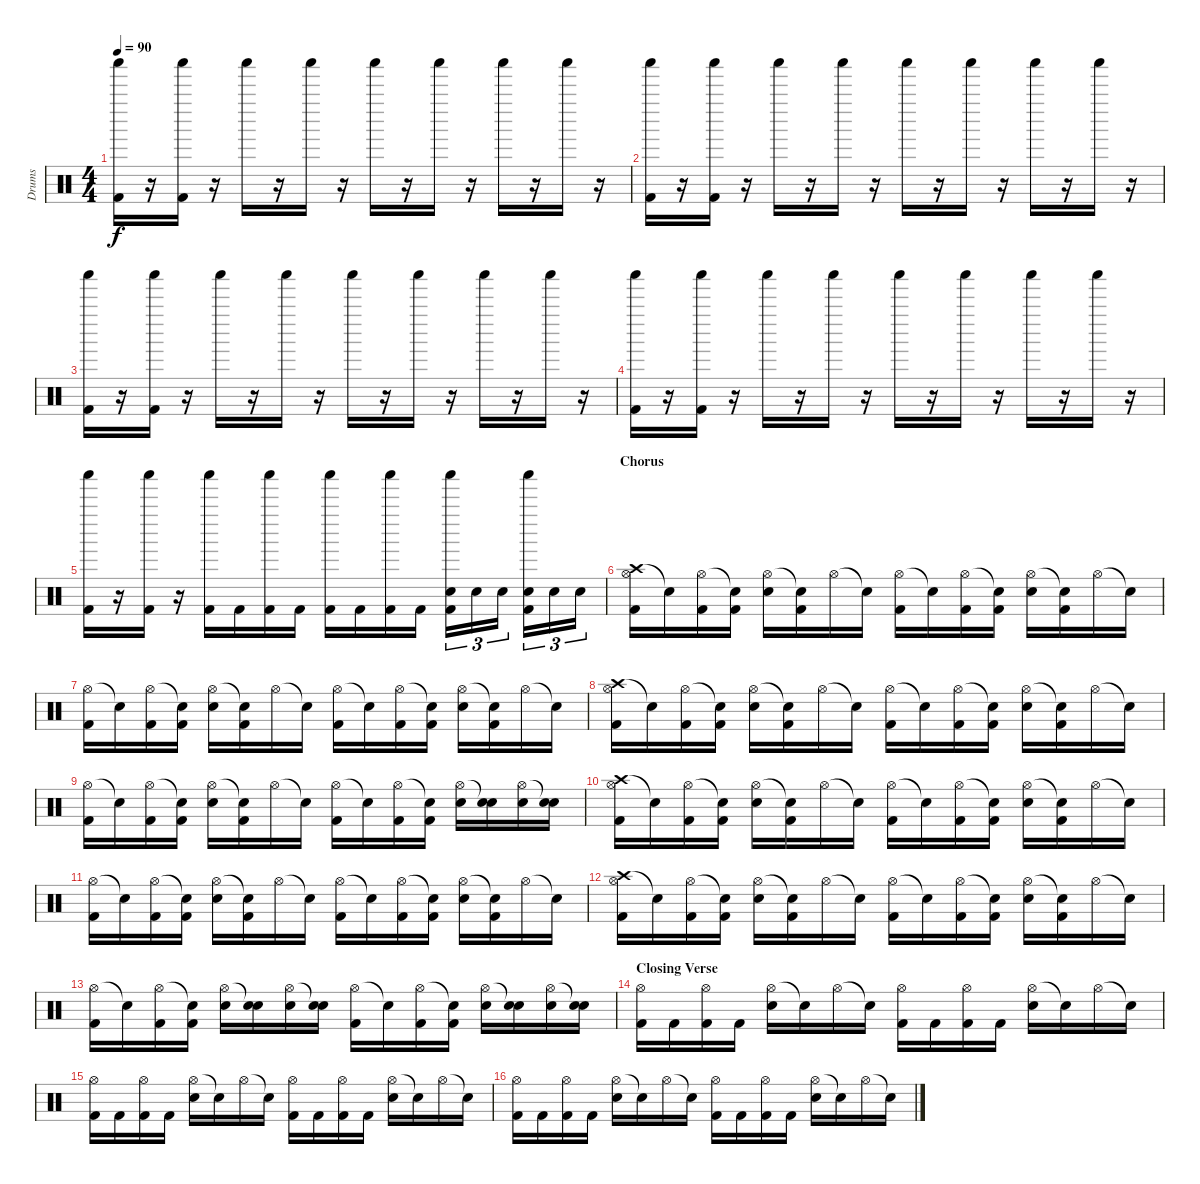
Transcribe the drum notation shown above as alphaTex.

\track ("Drums" "Drums") {instrument percussion}
\staff {score}
\articulation defaults
\ts (4 4)
\tempo 90
\clef neutral
\ks c
("Shaker (hit)" "Kick (hit) 2").16{dy f} r.16 ("Shaker (hit)" "Kick (hit) 2").16 r.16 "Shaker (hit)".16 r.16 "Shaker (hit)".16 r.16 "Shaker (hit)".16 r.16 "Shaker (hit)".16 r.16 "Shaker (hit)".16 r.16 "Shaker (hit)".16 r.16 |
("Shaker (hit)" "Kick (hit) 2").16 r.16 ("Shaker (hit)" "Kick (hit) 2").16 r.16 "Shaker (hit)".16 r.16 "Shaker (hit)".16 r.16 "Shaker (hit)".16 r.16 "Shaker (hit)".16 r.16 "Shaker (hit)".16 r.16 "Shaker (hit)".16 r.16 |
("Shaker (hit)" "Kick (hit) 2").16 r.16 ("Shaker (hit)" "Kick (hit) 2").16 r.16 "Shaker (hit)".16 r.16 "Shaker (hit)".16 r.16 "Shaker (hit)".16 r.16 "Shaker (hit)".16 r.16 "Shaker (hit)".16 r.16 "Shaker (hit)".16 r.16 |
("Shaker (hit)" "Kick (hit) 2").16 r.16 ("Shaker (hit)" "Kick (hit) 2").16 r.16 "Shaker (hit)".16 r.16 "Shaker (hit)".16 r.16 "Shaker (hit)".16 r.16 "Shaker (hit)".16 r.16 "Shaker (hit)".16 r.16 "Shaker (hit)".16 r.16 |
("Shaker (hit)" "Kick (hit) 2").16 r.16 ("Shaker (hit)" "Kick (hit) 2").16 r.16 ("Shaker (hit)" "Kick (hit) 2").16 "Kick (hit) 2".16 ("Shaker (hit)" "Kick (hit) 2").16 "Kick (hit) 2".16 ("Shaker (hit)" "Kick (hit) 2").16 "Kick (hit) 2".16 ("Shaker (hit)" "Kick (hit) 2").16 "Kick (hit) 2".16 ("Shaker (hit)" "Electric Snare (hit)" "Kick (hit) 2").16{tu (3 2)} "Electric Snare (hit)".16{tu (3 2)} "Electric Snare (hit)".16{tu (3 2)} ("Shaker (hit)" "Electric Snare (hit)" "Kick (hit) 2").16{tu (3 2)} "Electric Snare (hit)".16{tu (3 2)} "Electric Snare (hit)".16{tu (3 2)} |
\section ("" "Chorus")
("Crash high (hit)" "Hi-Hat (open)" "Kick (hit) 2").16 "Snare (hit)"{t}.16 ("Hi-Hat (open)" "Kick (hit) 2").16 ("Snare (hit)"{t} "Kick (hit) 2").16 ("Hi-Hat (open)" "Electric Snare (hit)").16 ("Snare (hit)"{t} "Kick (hit) 2").16 "Hi-Hat (open)".16 "Snare (hit)"{t}.16 ("Hi-Hat (open)" "Kick (hit) 2").16 "Snare (hit)"{t}.16 ("Hi-Hat (open)" "Kick (hit) 2").16 ("Snare (hit)"{t} "Kick (hit) 2").16 ("Hi-Hat (open)" "Electric Snare (hit)").16 ("Snare (hit)"{t} "Kick (hit) 2").16 "Hi-Hat (open)".16 "Snare (hit)"{t}.16 |
("Hi-Hat (open)" "Kick (hit) 2").16 "Snare (hit)"{t}.16 ("Hi-Hat (open)" "Kick (hit) 2").16 ("Snare (hit)"{t} "Kick (hit) 2").16 ("Hi-Hat (open)" "Electric Snare (hit)").16 ("Snare (hit)"{t} "Kick (hit) 2").16 "Hi-Hat (open)".16 "Snare (hit)"{t}.16 ("Hi-Hat (open)" "Kick (hit) 2").16 "Snare (hit)"{t}.16 ("Hi-Hat (open)" "Kick (hit) 2").16 ("Snare (hit)"{t} "Kick (hit) 2").16 ("Hi-Hat (open)" "Electric Snare (hit)").16 ("Snare (hit)"{t} "Kick (hit) 2").16 "Hi-Hat (open)".16 "Snare (hit)"{t}.16 |
("Crash high (hit)" "Hi-Hat (open)" "Kick (hit) 2").16 "Snare (hit)"{t}.16 ("Hi-Hat (open)" "Kick (hit) 2").16 ("Snare (hit)"{t} "Kick (hit) 2").16 ("Hi-Hat (open)" "Electric Snare (hit)").16 ("Snare (hit)"{t} "Kick (hit) 2").16 "Hi-Hat (open)".16 "Snare (hit)"{t}.16 ("Hi-Hat (open)" "Kick (hit) 2").16 "Snare (hit)"{t}.16 ("Hi-Hat (open)" "Kick (hit) 2").16 ("Snare (hit)"{t} "Kick (hit) 2").16 ("Hi-Hat (open)" "Electric Snare (hit)").16 ("Snare (hit)"{t} "Kick (hit) 2").16 "Hi-Hat (open)".16 "Snare (hit)"{t}.16 |
("Hi-Hat (open)" "Kick (hit) 2").16 "Snare (hit)"{t}.16 ("Hi-Hat (open)" "Kick (hit) 2").16 ("Snare (hit)"{t} "Kick (hit) 2").16 ("Hi-Hat (open)" "Electric Snare (hit)").16 ("Snare (hit)"{t} "Kick (hit) 2").16 "Hi-Hat (open)".16 "Snare (hit)"{t}.16 ("Hi-Hat (open)" "Kick (hit) 2").16 "Snare (hit)"{t}.16 ("Hi-Hat (open)" "Kick (hit) 2").16 ("Snare (hit)"{t} "Kick (hit) 2").16 ("Hi-Hat (open)" "Electric Snare (hit)").16 ("Snare (hit)"{t} "Electric Snare (hit)").16 ("Hi-Hat (open)" "Electric Snare (hit)").16 ("Snare (hit)"{t} "Electric Snare (hit)").16 |
("Crash high (hit)" "Hi-Hat (open)" "Kick (hit) 2").16 "Snare (hit)"{t}.16 ("Hi-Hat (open)" "Kick (hit) 2").16 ("Snare (hit)"{t} "Kick (hit) 2").16 ("Hi-Hat (open)" "Electric Snare (hit)").16 ("Snare (hit)"{t} "Kick (hit) 2").16 "Hi-Hat (open)".16 "Snare (hit)"{t}.16 ("Hi-Hat (open)" "Kick (hit) 2").16 "Snare (hit)"{t}.16 ("Hi-Hat (open)" "Kick (hit) 2").16 ("Snare (hit)"{t} "Kick (hit) 2").16 ("Hi-Hat (open)" "Electric Snare (hit)").16 ("Snare (hit)"{t} "Kick (hit) 2").16 "Hi-Hat (open)".16 "Snare (hit)"{t}.16 |
("Hi-Hat (open)" "Kick (hit) 2").16 "Snare (hit)"{t}.16 ("Hi-Hat (open)" "Kick (hit) 2").16 ("Snare (hit)"{t} "Kick (hit) 2").16 ("Hi-Hat (open)" "Electric Snare (hit)").16 ("Snare (hit)"{t} "Kick (hit) 2").16 "Hi-Hat (open)".16 "Snare (hit)"{t}.16 ("Hi-Hat (open)" "Kick (hit) 2").16 "Snare (hit)"{t}.16 ("Hi-Hat (open)" "Kick (hit) 2").16 ("Snare (hit)"{t} "Kick (hit) 2").16 ("Hi-Hat (open)" "Electric Snare (hit)").16 ("Snare (hit)"{t} "Kick (hit) 2").16 "Hi-Hat (open)".16 "Snare (hit)"{t}.16 |
("Crash high (hit)" "Hi-Hat (open)" "Kick (hit) 2").16 "Snare (hit)"{t}.16 ("Hi-Hat (open)" "Kick (hit) 2").16 ("Snare (hit)"{t} "Kick (hit) 2").16 ("Hi-Hat (open)" "Electric Snare (hit)").16 ("Snare (hit)"{t} "Kick (hit) 2").16 "Hi-Hat (open)".16 "Snare (hit)"{t}.16 ("Hi-Hat (open)" "Kick (hit) 2").16 "Snare (hit)"{t}.16 ("Hi-Hat (open)" "Kick (hit) 2").16 ("Snare (hit)"{t} "Kick (hit) 2").16 ("Hi-Hat (open)" "Electric Snare (hit)").16 ("Snare (hit)"{t} "Kick (hit) 2").16 "Hi-Hat (open)".16 "Snare (hit)"{t}.16 |
("Hi-Hat (open)" "Kick (hit) 2").16 "Snare (hit)"{t}.16 ("Hi-Hat (open)" "Kick (hit) 2").16 ("Snare (hit)"{t} "Kick (hit) 2").16 ("Hi-Hat (open)" "Electric Snare (hit)").16 ("Snare (hit)"{t} "Electric Snare (hit)").16 ("Hi-Hat (open)" "Electric Snare (hit)").16 ("Snare (hit)"{t} "Electric Snare (hit)").16 ("Hi-Hat (open)" "Kick (hit) 2").16 "Snare (hit)"{t}.16 ("Hi-Hat (open)" "Kick (hit) 2").16 ("Snare (hit)"{t} "Kick (hit) 2").16 ("Hi-Hat (open)" "Electric Snare (hit)").16 ("Snare (hit)"{t} "Electric Snare (hit)").16 ("Hi-Hat (open)" "Electric Snare (hit)").16 ("Snare (hit)"{t} "Electric Snare (hit)").16 |
\section ("" "Closing Verse")
("Hi-Hat (open)" "Kick (hit) 2").16 "Kick (hit) 2".16 ("Hi-Hat (open)" "Kick (hit) 2").16 "Kick (hit) 2".16 ("Hi-Hat (open)" "Electric Snare (hit)").16 "Snare (hit)"{t}.16 "Hi-Hat (open)".16 "Snare (hit)"{t}.16 ("Hi-Hat (open)" "Kick (hit) 2").16 "Kick (hit) 2".16 ("Hi-Hat (open)" "Kick (hit) 2").16 "Kick (hit) 2".16 ("Hi-Hat (open)" "Electric Snare (hit)").16 "Snare (hit)"{t}.16 "Hi-Hat (open)".16 "Snare (hit)"{t}.16 |
("Hi-Hat (open)" "Kick (hit) 2").16 "Kick (hit) 2".16 ("Hi-Hat (open)" "Kick (hit) 2").16 "Kick (hit) 2".16 ("Hi-Hat (open)" "Electric Snare (hit)").16 "Snare (hit)"{t}.16 "Hi-Hat (open)".16 "Snare (hit)"{t}.16 ("Hi-Hat (open)" "Kick (hit) 2").16 "Kick (hit) 2".16 ("Hi-Hat (open)" "Kick (hit) 2").16 "Kick (hit) 2".16 ("Hi-Hat (open)" "Electric Snare (hit)").16 "Snare (hit)"{t}.16 "Hi-Hat (open)".16 "Snare (hit)"{t}.16 |
("Hi-Hat (open)" "Kick (hit) 2").16 "Kick (hit) 2".16 ("Hi-Hat (open)" "Kick (hit) 2").16 "Kick (hit) 2".16 ("Hi-Hat (open)" "Electric Snare (hit)").16 "Snare (hit)"{t}.16 "Hi-Hat (open)".16 "Snare (hit)"{t}.16 ("Hi-Hat (open)" "Kick (hit) 2").16 "Kick (hit) 2".16 ("Hi-Hat (open)" "Kick (hit) 2").16 "Kick (hit) 2".16 ("Hi-Hat (open)" "Electric Snare (hit)").16 "Snare (hit)"{t}.16 "Hi-Hat (open)".16 "Snare (hit)"{t}.16
